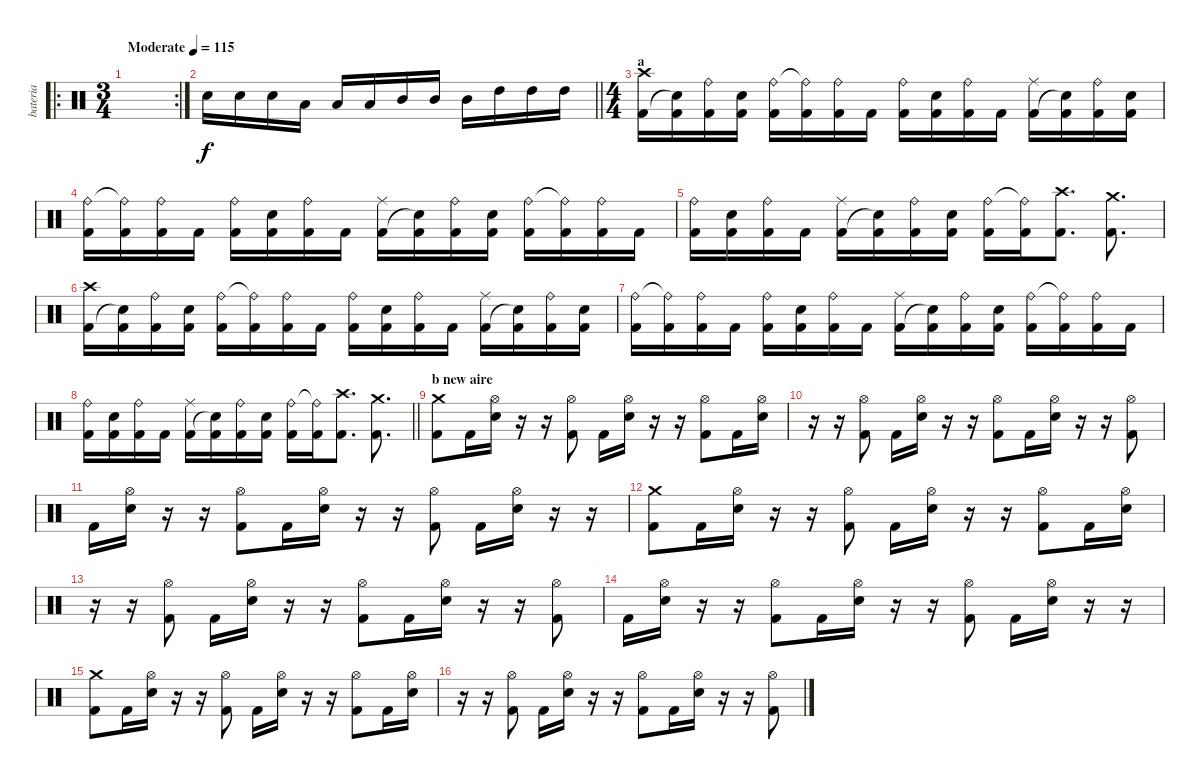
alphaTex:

\track ("bateria" "bateria") {mute instrument percussion}
\staff {score}
\articulation defaults
\ro
\rc 2
\ts (3 4)
\tempo (115 "Moderate")
\clef neutral
\ks c
|
\barLineRight lightlight "Snare (hit) 2".16 "Snare (hit) 2".16 "Snare (hit) 2".16 "Low Tom (hit)".16 "Low Tom (hit)".16 "Low Tom (hit)".16 "Mid Tom (hit)".16 "Mid Tom (hit)".16 "Mid Tom (hit)".16 "High Tom (hit)".16 "High Tom (hit)".16 "High Tom (hit)".16
|
\ts (4 4)
\section ("" "a")
("Crash high (hit)" "Kick (hit) 2").16 ("Kick (hit) 2" "Snare (hit)"{t}).16 ("Ride (bell)" "Kick (hit) 2").16 ("Snare (hit) 2" "Kick (hit) 2").16 ("Ride (bell)" "Kick (hit) 2").16 ("Ride (bell)"{t} "Kick (hit) 2").16 ("Kick (hit) 2" "Ride (bell)").16 "Kick (hit) 2".16 ("Ride (bell)" "Kick (hit) 2").16 ("Kick (hit) 2" "Snare (hit) 2").16 ("Kick (hit) 2" "Ride (bell)").16 "Kick (hit) 2".16 ("Ride (middle)" "Kick (hit) 2").16 ("Kick (hit) 2" "Snare (hit)"{t}).16 ("Ride (bell)" "Kick (hit) 2").16 ("Snare (hit) 2" "Kick (hit) 2").16 |
("Ride (bell)" "Kick (hit) 2").16 ("Ride (bell)"{t} "Kick (hit) 2").16 ("Kick (hit) 2" "Ride (bell)").16 "Kick (hit) 2".16 ("Ride (bell)" "Kick (hit) 2").16 ("Kick (hit) 2" "Snare (hit) 2").16 ("Kick (hit) 2" "Ride (bell)").16 "Kick (hit) 2".16 ("Ride (middle)" "Kick (hit) 2").16 ("Kick (hit) 2" "Snare (hit)"{t}).16 ("Ride (bell)" "Kick (hit) 2").16 ("Snare (hit) 2" "Kick (hit) 2").16 ("Ride (bell)" "Kick (hit) 2").16 ("Ride (bell)"{t} "Kick (hit) 2").16 ("Kick (hit) 2" "Ride (bell)").16 "Kick (hit) 2".16 |
("Ride (bell)" "Kick (hit) 2").16 ("Kick (hit) 2" "Snare (hit) 2").16 ("Kick (hit) 2" "Ride (bell)").16 "Kick (hit) 2".16 ("Ride (middle)" "Kick (hit) 2").16 ("Kick (hit) 2" "Snare (hit)"{t}).16 ("Ride (bell)" "Kick (hit) 2").16 ("Snare (hit) 2" "Kick (hit) 2").16 ("Ride (bell)" "Kick (hit) 2").16 ("Ride (bell)"{t} "Kick (hit) 2").16 ("Kick (hit) 2" "Crash high (hit)").8{d} ("Crash medium (hit)" "Kick (hit) 2").8{d} |
("Crash high (hit)" "Kick (hit) 2").16 ("Kick (hit) 2" "Snare (hit)"{t}).16 ("Ride (bell)" "Kick (hit) 2").16 ("Snare (hit) 2" "Kick (hit) 2").16 ("Ride (bell)" "Kick (hit) 2").16 ("Ride (bell)"{t} "Kick (hit) 2").16 ("Kick (hit) 2" "Ride (bell)").16 "Kick (hit) 2".16 ("Ride (bell)" "Kick (hit) 2").16 ("Kick (hit) 2" "Snare (hit) 2").16 ("Kick (hit) 2" "Ride (bell)").16 "Kick (hit) 2".16 ("Ride (middle)" "Kick (hit) 2").16 ("Kick (hit) 2" "Snare (hit)"{t}).16 ("Ride (bell)" "Kick (hit) 2").16 ("Snare (hit) 2" "Kick (hit) 2").16 |
("Ride (bell)" "Kick (hit) 2").16 ("Ride (bell)"{t} "Kick (hit) 2").16 ("Kick (hit) 2" "Ride (bell)").16 "Kick (hit) 2".16 ("Ride (bell)" "Kick (hit) 2").16 ("Kick (hit) 2" "Snare (hit) 2").16 ("Kick (hit) 2" "Ride (bell)").16 "Kick (hit) 2".16 ("Ride (middle)" "Kick (hit) 2").16 ("Kick (hit) 2" "Snare (hit)"{t}).16 ("Ride (bell)" "Kick (hit) 2").16 ("Snare (hit) 2" "Kick (hit) 2").16 ("Ride (bell)" "Kick (hit) 2").16 ("Ride (bell)"{t} "Kick (hit) 2").16 ("Kick (hit) 2" "Ride (bell)").16 "Kick (hit) 2".16 |
\barLineRight lightlight
("Ride (bell)" "Kick (hit) 2").16 ("Kick (hit) 2" "Snare (hit) 2").16 ("Kick (hit) 2" "Ride (bell)").16 "Kick (hit) 2".16 ("Ride (middle)" "Kick (hit) 2").16 ("Kick (hit) 2" "Snare (hit)"{t}).16 ("Ride (bell)" "Kick (hit) 2").16 ("Snare (hit) 2" "Kick (hit) 2").16 ("Ride (bell)" "Kick (hit) 2").16 ("Ride (bell)"{t} "Kick (hit) 2").16 ("Kick (hit) 2" "Crash high (hit)").8{d} ("Crash medium (hit)" "Kick (hit) 2").8{d} |
\section ("" "b new aire")
("Kick (hit) 2" "Crash medium (hit)").8 "Kick (hit) 2".16 ("Electric Snare (hit)" "Hi-Hat (open)").16 r.16 r.16 ("Kick (hit) 2" "Hi-Hat (open)").8 "Kick (hit) 2".16 ("Hi-Hat (open)" "Electric Snare (hit)").16 r.16 r.16 ("Kick (hit) 2" "Hi-Hat (open)").8 "Kick (hit) 2".16 ("Hi-Hat (open)" "Electric Snare (hit)").16 |
r.16 r.16 ("Kick (hit) 2" "Hi-Hat (open)").8 "Kick (hit) 2".16 ("Hi-Hat (open)" "Electric Snare (hit)").16 r.16 r.16 ("Kick (hit) 2" "Hi-Hat (open)").8 "Kick (hit) 2".16 ("Hi-Hat (open)" "Electric Snare (hit)").16 r.16 r.16 ("Kick (hit) 2" "Hi-Hat (open)").8 |
"Kick (hit) 2".16 ("Electric Snare (hit)" "Hi-Hat (open)").16 r.16 r.16 ("Kick (hit) 2" "Hi-Hat (open)").8 "Kick (hit) 2".16 ("Hi-Hat (open)" "Electric Snare (hit)").16 r.16 r.16 ("Kick (hit) 2" "Hi-Hat (open)").8 "Kick (hit) 2".16 ("Hi-Hat (open)" "Electric Snare (hit)").16 r.16 r.16 |
("Kick (hit) 2" "Crash medium (hit)").8 "Kick (hit) 2".16 ("Electric Snare (hit)" "Hi-Hat (open)").16 r.16 r.16 ("Kick (hit) 2" "Hi-Hat (open)").8 "Kick (hit) 2".16 ("Hi-Hat (open)" "Electric Snare (hit)").16 r.16 r.16 ("Kick (hit) 2" "Hi-Hat (open)").8 "Kick (hit) 2".16 ("Hi-Hat (open)" "Electric Snare (hit)").16 |
r.16 r.16 ("Kick (hit) 2" "Hi-Hat (open)").8 "Kick (hit) 2".16 ("Hi-Hat (open)" "Electric Snare (hit)").16 r.16 r.16 ("Kick (hit) 2" "Hi-Hat (open)").8 "Kick (hit) 2".16 ("Hi-Hat (open)" "Electric Snare (hit)").16 r.16 r.16 ("Kick (hit) 2" "Hi-Hat (open)").8 |
"Kick (hit) 2".16 ("Electric Snare (hit)" "Hi-Hat (open)").16 r.16 r.16 ("Kick (hit) 2" "Hi-Hat (open)").8 "Kick (hit) 2".16 ("Hi-Hat (open)" "Electric Snare (hit)").16 r.16 r.16 ("Kick (hit) 2" "Hi-Hat (open)").8 "Kick (hit) 2".16 ("Hi-Hat (open)" "Electric Snare (hit)").16 r.16 r.16 |
("Kick (hit) 2" "Crash medium (hit)").8 "Kick (hit) 2".16 ("Electric Snare (hit)" "Hi-Hat (open)").16 r.16 r.16 ("Kick (hit) 2" "Hi-Hat (open)").8 "Kick (hit) 2".16 ("Hi-Hat (open)" "Electric Snare (hit)").16 r.16 r.16 ("Kick (hit) 2" "Hi-Hat (open)").8 "Kick (hit) 2".16 ("Hi-Hat (open)" "Electric Snare (hit)").16 |
r.16 r.16 ("Kick (hit) 2" "Hi-Hat (open)").8 "Kick (hit) 2".16 ("Hi-Hat (open)" "Electric Snare (hit)").16 r.16 r.16 ("Kick (hit) 2" "Hi-Hat (open)").8 "Kick (hit) 2".16 ("Hi-Hat (open)" "Electric Snare (hit)").16 r.16 r.16 ("Kick (hit) 2" "Hi-Hat (open)").8
